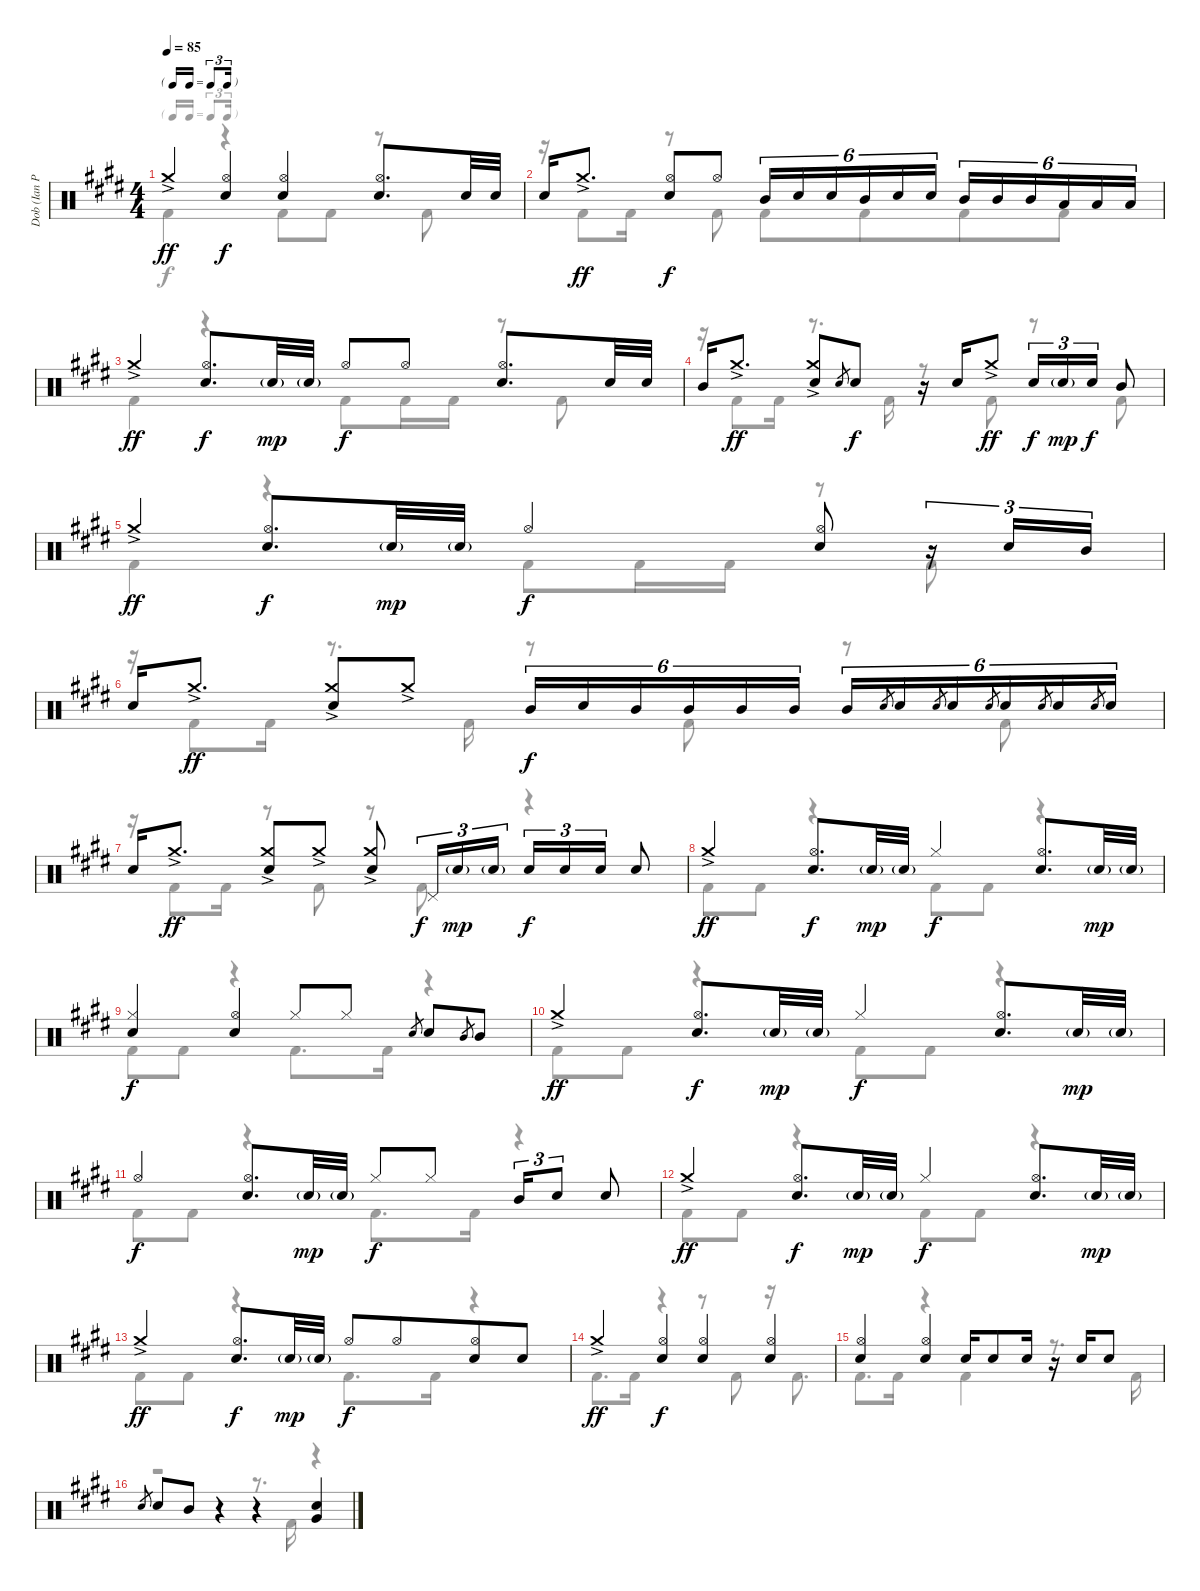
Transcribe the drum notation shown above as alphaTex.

\track ("Dob (Ian Paice)" "Dob (Ian P") {instrument percussion}
\staff {score}
\articulation defaults
\voice
\ts (4 4)
\tf triplet16th
\tempo 85
\clef neutral
\ks e "Crash medium (hit)"{ac}.4{dy ff}
("Hi-Hat (open)" "Electric Snare (hit)").4{dy f} ("Hi-Hat (open)" "Electric Snare (hit)").4 ("Hi-Hat (open)" "Electric Snare (hit)").8{d} "Electric Snare (hit)".32 "Electric Snare (hit)".32 |
"Electric Snare (hit)".16 "Crash medium (hit)"{ac}.8{d dy ff} ("Hi-Hat (open)" "Electric Snare (hit)").8{dy f} "Hi-Hat (open)".8 "Mid Tom (hit)".16{tu (6 4)} "Electric Snare (hit)".16{tu (6 4)} "Electric Snare (hit)".16{tu (6 4)} "Mid Tom (hit)".16{tu (6 4)} "Electric Snare (hit)".16{tu (6 4)} "Electric Snare (hit)".16{tu (6 4)} "Mid Tom (hit)".16{tu (6 4)} "Mid Tom (hit)".16{tu (6 4)} "Mid Tom (hit)".16{tu (6 4)} "Low Tom (hit)".16{tu (6 4)} "Low Tom (hit)".16{tu (6 4)} "Low Tom (hit)".16{tu (6 4)} |
"Crash medium (hit)"{ac}.4{dy ff} ("Hi-Hat (open)" "Electric Snare (hit)").8{d dy f} "Electric Snare (hit)"{g}.32{dy mp} "Electric Snare (hit)"{g}.32 "Hi-Hat (open)".8{dy f} "Hi-Hat (open)".8 ("Hi-Hat (open)" "Electric Snare (hit)").8{d} "Electric Snare (hit)".32 "Electric Snare (hit)".32 |
"Mid Tom (hit)".16 "Crash medium (hit)"{ac}.8{d dy ff} ("Crash medium (hit)"{ac} "Electric Snare (hit)").8 "Electric Snare (hit)".8{gr} "Electric Snare (hit)".8{dy f} r.16 "Electric Snare (hit)".16 "Crash medium (hit)"{ac}.8{dy ff} "Electric Snare (hit)".16{tu (3 2) dy f} "Electric Snare (hit)"{g}.16{tu (3 2) dy mp} "Electric Snare (hit)".16{tu (3 2) dy f} "Mid Tom (hit)".8 |
"Crash medium (hit)"{ac}.4{dy ff} ("Hi-Hat (open)" "Electric Snare (hit)").8{d dy f} "Electric Snare (hit)"{g}.32{dy mp} "Electric Snare (hit)"{g}.32 "Hi-Hat (open)".4{dy f} ("Hi-Hat (open)" "Electric Snare (hit)").8 r.16{tu (3 2)} "Electric Snare (hit)".16{tu (3 2)} "Mid Tom (hit)".16{tu (3 2)} |
"Electric Snare (hit)".16 "Crash medium (hit)"{ac}.8{d dy ff} ("Crash medium (hit)"{ac} "Electric Snare (hit)").8 "Crash medium (hit)"{ac}.8 "Mid Tom (hit)".16{tu (6 4) dy f} "Electric Snare (hit)".16{tu (6 4)} "Mid Tom (hit)".16{tu (6 4)} "Mid Tom (hit)".16{tu (6 4)} "Mid Tom (hit)".16{tu (6 4)} "Mid Tom (hit)".16{tu (6 4)} "Mid Tom (hit)".16{tu (6 4)} "Electric Snare (hit)".8{gr} "Electric Snare (hit)".16{tu (6 4)} "Electric Snare (hit)".8{gr} "Electric Snare (hit)".16{tu (6 4)} "Electric Snare (hit)".8{gr} "Electric Snare (hit)".16{tu (6 4)} "Electric Snare (hit)".8{gr} "Electric Snare (hit)".16{tu (6 4)} "Electric Snare (hit)".8{gr} "Electric Snare (hit)".16{tu (6 4)} |
"Electric Snare (hit)".16 "Crash medium (hit)"{ac}.8{d dy ff} ("Crash medium (hit)"{ac} "Electric Snare (hit)").8 "Crash medium (hit)"{ac}.8 ("Crash medium (hit)"{ac} "Electric Snare (hit)").8 "Pedal Hi-Hat (hit)".16{tu (3 2) dy f} "Electric Snare (hit)"{g}.16{tu (3 2) dy mp} "Electric Snare (hit)"{g}.16{tu (3 2)} "Electric Snare (hit)".16{tu (3 2) dy f} "Electric Snare (hit)".16{tu (3 2)} "Electric Snare (hit)".16{tu (3 2)} "Electric Snare (hit)".8 |
"Crash medium (hit)"{ac}.4{dy ff} ("Hi-Hat (open)" "Electric Snare (hit)").8{d dy f} "Electric Snare (hit)"{g}.32{dy mp} "Electric Snare (hit)"{g}.32 "Hi-Hat (closed)".4{dy f} ("Hi-Hat (open)" "Electric Snare (hit)").8{d} "Electric Snare (hit)"{g}.32{dy mp} "Electric Snare (hit)"{g}.32 |
("Hi-Hat (closed)" "Electric Snare (hit)").4{dy f} ("Hi-Hat (open)" "Electric Snare (hit)").4 "Hi-Hat (closed)".8 "Hi-Hat (closed)".8 "Electric Snare (hit)".8{gr beam merge} "Electric Snare (hit)".8 "Mid Tom (hit)".8{gr} "Mid Tom (hit)".8 |
"Crash medium (hit)"{ac}.4{dy ff} ("Hi-Hat (open)" "Electric Snare (hit)").8{d dy f} "Electric Snare (hit)"{g}.32{dy mp} "Electric Snare (hit)"{g}.32 "Hi-Hat (closed)".4{dy f} ("Hi-Hat (open)" "Electric Snare (hit)").8{d} "Electric Snare (hit)"{g}.32{dy mp} "Electric Snare (hit)"{g}.32 |
"Hi-Hat (open)".4{dy f} ("Hi-Hat (open)" "Electric Snare (hit)").8{d} "Electric Snare (hit)"{g}.32{dy mp} "Electric Snare (hit)"{g}.32 "Hi-Hat (closed)".8{dy f} "Hi-Hat (closed)".8 "Mid Tom (hit)".16{tu (3 2)} "Electric Snare (hit)".8{tu (3 2)} "Electric Snare (hit)".8 |
"Crash medium (hit)"{ac}.4{dy ff} ("Hi-Hat (open)" "Electric Snare (hit)").8{d dy f} "Electric Snare (hit)"{g}.32{dy mp} "Electric Snare (hit)"{g}.32 "Hi-Hat (closed)".4{dy f} ("Hi-Hat (open)" "Electric Snare (hit)").8{d} "Electric Snare (hit)"{g}.32{dy mp} "Electric Snare (hit)"{g}.32 |
"Crash medium (hit)"{ac}.4{dy ff} ("Hi-Hat (open)" "Electric Snare (hit)").8{d dy f} "Electric Snare (hit)"{g}.32{dy mp} "Electric Snare (hit)"{g}.32 "Hi-Hat (open)".8{dy f} "Hi-Hat (open)".8{beam merge} ("Hi-Hat (open)" "Electric Snare (hit)").8 "Electric Snare (hit)".8 |
"Crash medium (hit)"{ac}.4{dy ff} ("Hi-Hat (open)" "Electric Snare (hit)").4{dy f} ("Hi-Hat (open)" "Electric Snare (hit)").4 ("Hi-Hat (open)" "Electric Snare (hit)").4 |
("Hi-Hat (open)" "Electric Snare (hit)").4 ("Hi-Hat (open)" "Electric Snare (hit)").4 "Electric Snare (hit)".16 "Electric Snare (hit)".8 "Electric Snare (hit)".16 r.16 "Electric Snare (hit)".16 "Electric Snare (hit)".8 |
"Electric Snare (hit)".8{gr} "Electric Snare (hit)".8 "Mid Tom (hit)".8 r.4 r.4 ("Electric Snare (hit)" "Very Low Tom (hit)").4
\voice
\clef neutral
\ottava regular
\simile none
\ks e "Kick (hit) 2".4{dy f}
r.4 "Kick (hit) 2".8 "Kick (hit) 2".8 r.8 "Kick (hit) 2".8 |
r.16 "Kick (hit) 2".8 "Kick (hit) 2".16 r.8 "Kick (hit) 2".8 "Kick (hit) 2".8 "Kick (hit) 2".8{beam merge} "Kick (hit) 2".8 "Kick (hit) 2".8 |
"Kick (hit) 2".4 r.4 "Kick (hit) 2".8 "Kick (hit) 2".16 "Kick (hit) 2".16 r.8 "Kick (hit) 2".8 |
r.16 "Kick (hit) 2".8 "Kick (hit) 2".16 r.8{d} "Kick (hit) 2".16 r.8 "Kick (hit) 2".8 r.8 "Kick (hit) 2".8 |
"Kick (hit) 2".4 r.4 "Kick (hit) 2".8 "Kick (hit) 2".16 "Kick (hit) 2".16 r.8 "Kick (hit) 2".8 |
r.16 "Kick (hit) 2".8 "Kick (hit) 2".16 r.8{d} "Kick (hit) 2".16 r.8 "Kick (hit) 2".8 r.8 "Kick (hit) 2".8 |
r.16 "Kick (hit) 2".8 "Kick (hit) 2".16 r.8 "Kick (hit) 2".8 r.8 "Kick (hit) 2".8 r.4 |
"Kick (hit) 2".8 "Kick (hit) 2".8 r.4 "Kick (hit) 2".8 "Kick (hit) 2".8 r.4 |
"Kick (hit) 2".8 "Kick (hit) 2".8 r.4 "Kick (hit) 2".8{d} "Kick (hit) 2".16 r.4 |
"Kick (hit) 2".8 "Kick (hit) 2".8 r.4 "Kick (hit) 2".8 "Kick (hit) 2".8 r.4 |
"Kick (hit) 2".8 "Kick (hit) 2".8 r.4 "Kick (hit) 2".8{d} "Kick (hit) 2".16 r.4 |
"Kick (hit) 2".8 "Kick (hit) 2".8 r.4 "Kick (hit) 2".8 "Kick (hit) 2".8 r.4 |
"Kick (hit) 2".8 "Kick (hit) 2".8 r.4 "Kick (hit) 2".8{d} "Kick (hit) 2".16 r.4 |
"Kick (hit) 2".8{d} "Kick (hit) 2".16 r.4 r.8 "Kick (hit) 2".8 r.16 "Kick (hit) 2".8{d} |
"Kick (hit) 2".8{d} "Kick (hit) 2".16 r.4 "Kick (hit) 2".4 r.8{d} "Kick (hit) 2".16 |
r.2 r.8{d} "Kick (hit) 2".16 r.4
